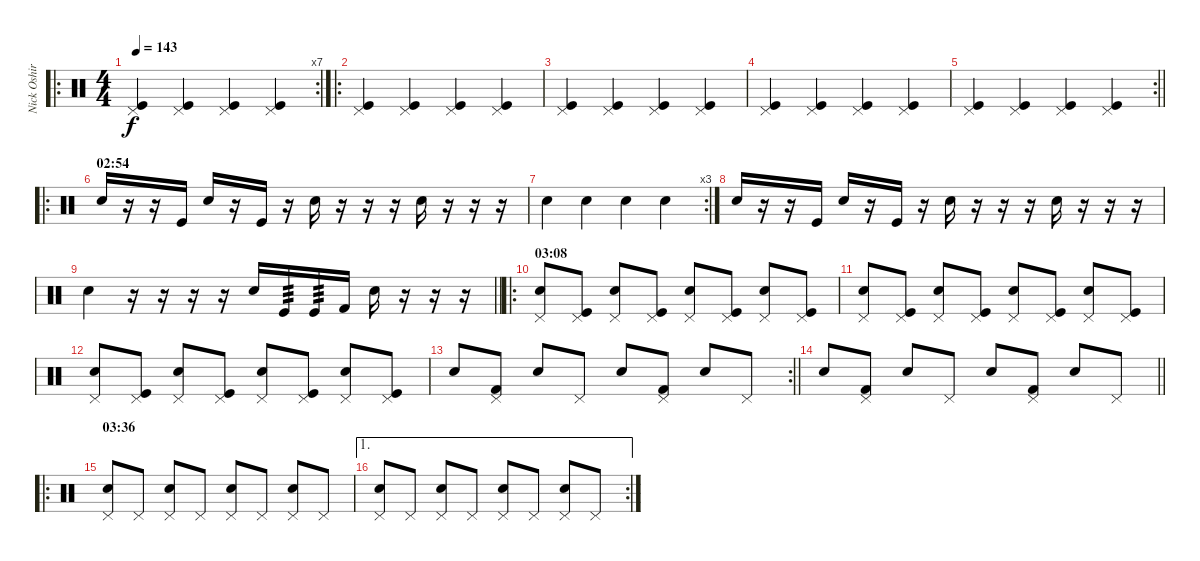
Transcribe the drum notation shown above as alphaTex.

\track ("Nick Oshiro" "Nick Oshir") {instrument percussion}
\staff {score}
\articulation defaults
\ro
\rc 7
\ts (4 4)
\tempo 143
\clef neutral
\ks c
("Kick (hit)" "Pedal Hi-Hat (hit)").4{dy f} ("Kick (hit)" "Pedal Hi-Hat (hit)").4 ("Kick (hit)" "Pedal Hi-Hat (hit)").4 ("Kick (hit)" "Pedal Hi-Hat (hit)").4 |
\ro
("Kick (hit)" "Pedal Hi-Hat (hit)").4 ("Kick (hit)" "Pedal Hi-Hat (hit)").4 ("Kick (hit)" "Pedal Hi-Hat (hit)").4 ("Kick (hit)" "Pedal Hi-Hat (hit)").4 |
("Kick (hit)" "Pedal Hi-Hat (hit)").4 ("Kick (hit)" "Pedal Hi-Hat (hit)").4 ("Kick (hit)" "Pedal Hi-Hat (hit)").4 ("Kick (hit)" "Pedal Hi-Hat (hit)").4 |
("Kick (hit)" "Pedal Hi-Hat (hit)").4 ("Kick (hit)" "Pedal Hi-Hat (hit)").4 ("Kick (hit)" "Pedal Hi-Hat (hit)").4 ("Kick (hit)" "Pedal Hi-Hat (hit)").4 |
\rc 2
\barLineRight lightlight
("Kick (hit)" "Pedal Hi-Hat (hit)").4 ("Kick (hit)" "Pedal Hi-Hat (hit)").4 ("Kick (hit)" "Pedal Hi-Hat (hit)").4 ("Kick (hit)" "Pedal Hi-Hat (hit)").4 |
\ro
\section ("" "02:54")
"Electric Snare (hit)".16{volume 9} r.16 r.16 "Kick (hit)".16 "Electric Snare (hit)".16 r.16 "Kick (hit)".16 r.16 "Electric Snare (hit)".16 r.16 r.16 r.16 "Electric Snare (hit)".16 r.16 r.16 r.16 |
\rc 3 "Electric Snare (hit)".4 "Electric Snare (hit)".4 "Electric Snare (hit)".4 "Electric Snare (hit)".4
|
"Electric Snare (hit)".16 r.16 r.16 "Kick (hit)".16 "Electric Snare (hit)".16 r.16 "Kick (hit)".16 r.16 "Electric Snare (hit)".16 r.16 r.16 r.16 "Electric Snare (hit)".16 r.16 r.16 r.16 |
\barLineRight lightlight "Electric Snare (hit)".4{volume 13}
r.16 r.16 r.16 r.16 "Electric Snare (hit)".16 "Kick (hit)".16{tp 3} "Kick (hit)".16{tp 3} "Kick (hit) 2".16 "Electric Snare (hit)".16 r.16 r.16 r.16 |
\ro
\section ("" "03:08")
("Pedal Hi-Hat (hit)" "Snare (hit) 2").8 ("Pedal Hi-Hat (hit)" "Kick (hit)").8 ("Pedal Hi-Hat (hit)" "Snare (hit) 2").8 ("Pedal Hi-Hat (hit)" "Kick (hit)").8 ("Pedal Hi-Hat (hit)" "Snare (hit) 2").8 ("Pedal Hi-Hat (hit)" "Kick (hit)").8 ("Pedal Hi-Hat (hit)" "Snare (hit) 2").8 ("Pedal Hi-Hat (hit)" "Kick (hit)").8 |
("Pedal Hi-Hat (hit)" "Snare (hit) 2").8 ("Pedal Hi-Hat (hit)" "Kick (hit)").8 ("Pedal Hi-Hat (hit)" "Snare (hit) 2").8 ("Pedal Hi-Hat (hit)" "Kick (hit)").8 ("Pedal Hi-Hat (hit)" "Snare (hit) 2").8 ("Pedal Hi-Hat (hit)" "Kick (hit)").8 ("Pedal Hi-Hat (hit)" "Snare (hit) 2").8 ("Pedal Hi-Hat (hit)" "Kick (hit)").8 |
("Pedal Hi-Hat (hit)" "Snare (hit) 2").8 ("Pedal Hi-Hat (hit)" "Kick (hit)").8 ("Pedal Hi-Hat (hit)" "Snare (hit) 2").8 ("Pedal Hi-Hat (hit)" "Kick (hit)").8 ("Pedal Hi-Hat (hit)" "Snare (hit) 2").8 ("Pedal Hi-Hat (hit)" "Kick (hit)").8 ("Pedal Hi-Hat (hit)" "Snare (hit) 2").8 ("Pedal Hi-Hat (hit)" "Kick (hit)").8 |
\rc 2
\barLineRight lightlight "Snare (hit) 2".8
("Pedal Hi-Hat (hit)" "Kick (hit) 2").8 "Snare (hit) 2".8 "Pedal Hi-Hat (hit)".8 "Snare (hit) 2".8 ("Pedal Hi-Hat (hit)" "Kick (hit) 2").8 "Snare (hit) 2".8 "Pedal Hi-Hat (hit)".8 |
\barLineRight lightlight "Snare (hit) 2".8
("Pedal Hi-Hat (hit)" "Kick (hit) 2").8 "Snare (hit) 2".8 "Pedal Hi-Hat (hit)".8 "Snare (hit) 2".8 ("Pedal Hi-Hat (hit)" "Kick (hit) 2").8 "Snare (hit) 2".8 "Pedal Hi-Hat (hit)".8 |
\ro
\section ("" "03:36")
("Pedal Hi-Hat (hit)" "Snare (hit) 2").8 "Pedal Hi-Hat (hit)".8 ("Pedal Hi-Hat (hit)" "Snare (hit) 2").8 "Pedal Hi-Hat (hit)".8 ("Pedal Hi-Hat (hit)" "Snare (hit) 2").8 "Pedal Hi-Hat (hit)".8 ("Pedal Hi-Hat (hit)" "Snare (hit) 2").8 "Pedal Hi-Hat (hit)".8 |
\ae 1
\rc 2
("Pedal Hi-Hat (hit)" "Snare (hit) 2").8 "Pedal Hi-Hat (hit)".8 ("Pedal Hi-Hat (hit)" "Snare (hit) 2").8 "Pedal Hi-Hat (hit)".8 ("Pedal Hi-Hat (hit)" "Snare (hit) 2").8 "Pedal Hi-Hat (hit)".8 ("Pedal Hi-Hat (hit)" "Snare (hit) 2").8 "Pedal Hi-Hat (hit)".8
